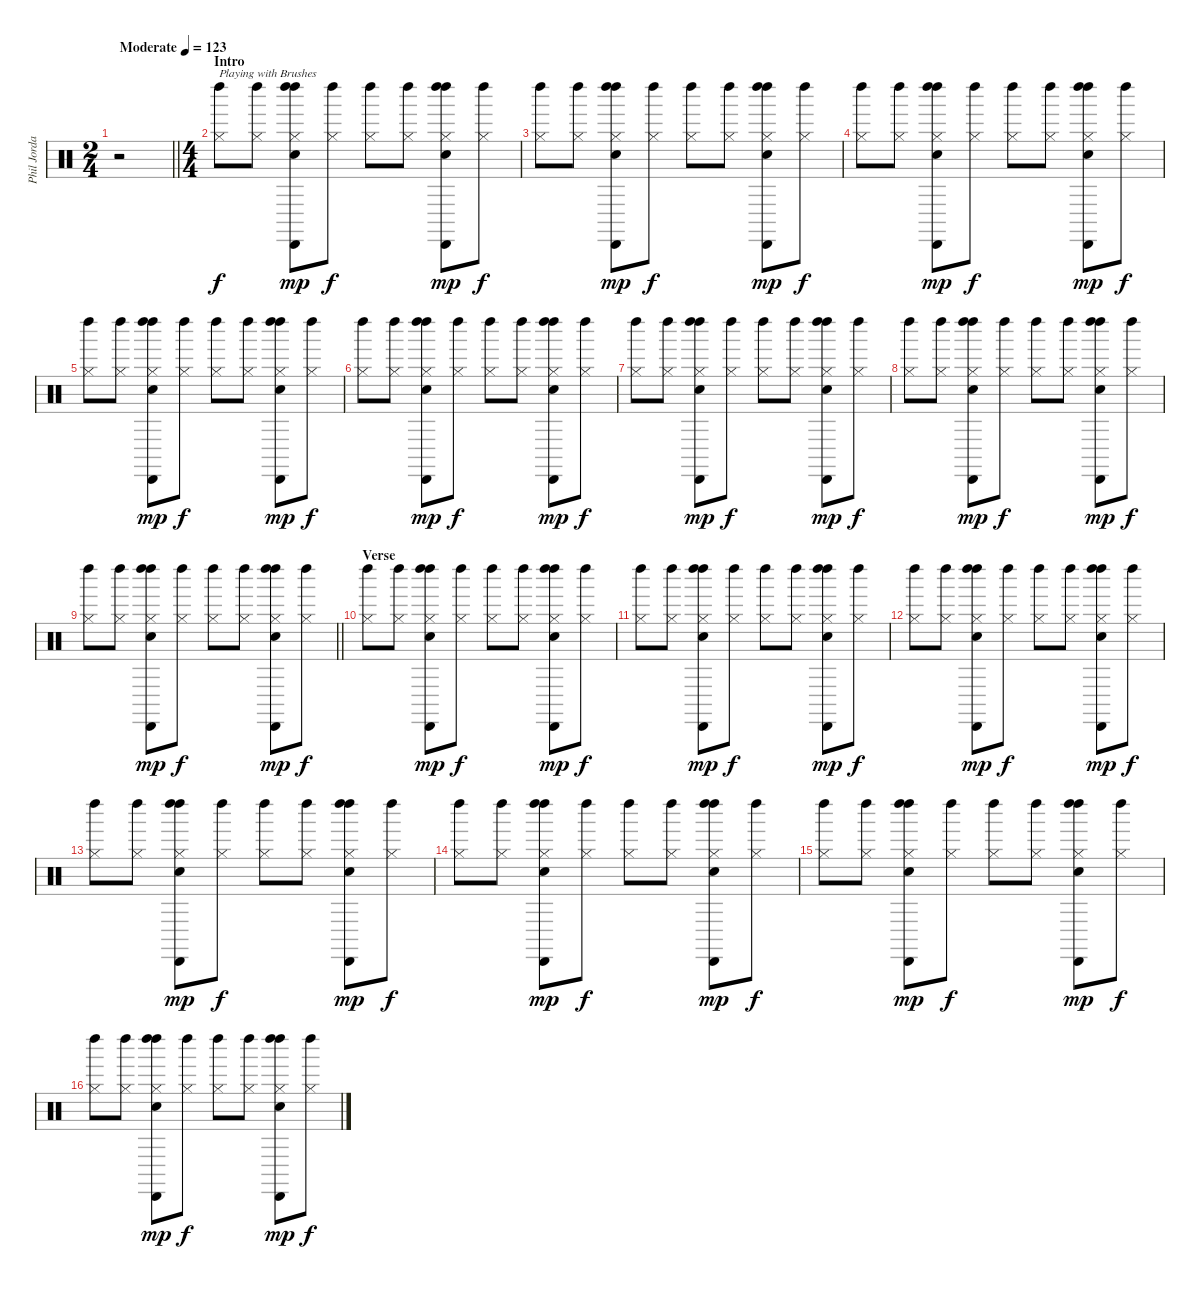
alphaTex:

\track ("Phil Jordan" "Phil Jorda") {instrument percussion}
\staff {score}
\articulation defaults
\ts (2 4)
\tempo (123 "Moderate")
\clef neutral
\barLineRight lightlight
\ks c
r.2{dy f} |
\ts (4 4)
\section ("" "Intro")
("Left Maraca (hit)" "Hi-Hat (closed)").8{txt "Playing with Brushes" volume 8} ("Left Maraca (hit)" "Hi-Hat (closed)").8 ("Left Maraca (hit)" "Hi-Hat (closed)" "Cabasa (hit)" "Left Maraca (hit)" "Snare (hit) 2").8{dy mp} ("Left Maraca (hit)" "Hi-Hat (closed)").8{dy f} ("Left Maraca (hit)" "Hi-Hat (closed)").8 ("Left Maraca (hit)" "Hi-Hat (closed)").8 ("Left Maraca (hit)" "Hi-Hat (closed)" "Cabasa (hit)" "Left Maraca (hit)" "Snare (hit) 2").8{dy mp} ("Left Maraca (hit)" "Hi-Hat (closed)").8{dy f} |
("Left Maraca (hit)" "Hi-Hat (closed)").8 ("Left Maraca (hit)" "Hi-Hat (closed)").8 ("Left Maraca (hit)" "Hi-Hat (closed)" "Cabasa (hit)" "Left Maraca (hit)" "Snare (hit) 2").8{dy mp} ("Left Maraca (hit)" "Hi-Hat (closed)").8{dy f} ("Left Maraca (hit)" "Hi-Hat (closed)").8 ("Left Maraca (hit)" "Hi-Hat (closed)").8 ("Left Maraca (hit)" "Hi-Hat (closed)" "Cabasa (hit)" "Left Maraca (hit)" "Snare (hit) 2").8{dy mp} ("Left Maraca (hit)" "Hi-Hat (closed)").8{dy f} |
("Left Maraca (hit)" "Hi-Hat (closed)").8 ("Left Maraca (hit)" "Hi-Hat (closed)").8 ("Left Maraca (hit)" "Hi-Hat (closed)" "Cabasa (hit)" "Left Maraca (hit)" "Snare (hit) 2").8{dy mp} ("Left Maraca (hit)" "Hi-Hat (closed)").8{dy f} ("Left Maraca (hit)" "Hi-Hat (closed)").8 ("Left Maraca (hit)" "Hi-Hat (closed)").8 ("Left Maraca (hit)" "Hi-Hat (closed)" "Cabasa (hit)" "Left Maraca (hit)" "Snare (hit) 2").8{dy mp} ("Left Maraca (hit)" "Hi-Hat (closed)").8{dy f} |
("Left Maraca (hit)" "Hi-Hat (closed)").8 ("Left Maraca (hit)" "Hi-Hat (closed)").8 ("Left Maraca (hit)" "Hi-Hat (closed)" "Cabasa (hit)" "Left Maraca (hit)" "Snare (hit) 2").8{dy mp} ("Left Maraca (hit)" "Hi-Hat (closed)").8{dy f} ("Left Maraca (hit)" "Hi-Hat (closed)").8 ("Left Maraca (hit)" "Hi-Hat (closed)").8 ("Left Maraca (hit)" "Hi-Hat (closed)" "Cabasa (hit)" "Left Maraca (hit)" "Snare (hit) 2").8{dy mp} ("Left Maraca (hit)" "Hi-Hat (closed)").8{dy f} |
("Left Maraca (hit)" "Hi-Hat (closed)").8{volume 8} ("Left Maraca (hit)" "Hi-Hat (closed)").8 ("Left Maraca (hit)" "Hi-Hat (closed)" "Cabasa (hit)" "Left Maraca (hit)" "Snare (hit) 2").8{dy mp} ("Left Maraca (hit)" "Hi-Hat (closed)").8{dy f} ("Left Maraca (hit)" "Hi-Hat (closed)").8 ("Left Maraca (hit)" "Hi-Hat (closed)").8 ("Left Maraca (hit)" "Hi-Hat (closed)" "Cabasa (hit)" "Left Maraca (hit)" "Snare (hit) 2").8{dy mp} ("Left Maraca (hit)" "Hi-Hat (closed)").8{dy f} |
("Left Maraca (hit)" "Hi-Hat (closed)").8 ("Left Maraca (hit)" "Hi-Hat (closed)").8 ("Left Maraca (hit)" "Hi-Hat (closed)" "Cabasa (hit)" "Left Maraca (hit)" "Snare (hit) 2").8{dy mp} ("Left Maraca (hit)" "Hi-Hat (closed)").8{dy f} ("Left Maraca (hit)" "Hi-Hat (closed)").8 ("Left Maraca (hit)" "Hi-Hat (closed)").8 ("Left Maraca (hit)" "Hi-Hat (closed)" "Cabasa (hit)" "Left Maraca (hit)" "Snare (hit) 2").8{dy mp} ("Left Maraca (hit)" "Hi-Hat (closed)").8{dy f} |
("Left Maraca (hit)" "Hi-Hat (closed)").8 ("Left Maraca (hit)" "Hi-Hat (closed)").8 ("Left Maraca (hit)" "Hi-Hat (closed)" "Cabasa (hit)" "Left Maraca (hit)" "Snare (hit) 2").8{dy mp} ("Left Maraca (hit)" "Hi-Hat (closed)").8{dy f} ("Left Maraca (hit)" "Hi-Hat (closed)").8 ("Left Maraca (hit)" "Hi-Hat (closed)").8 ("Left Maraca (hit)" "Hi-Hat (closed)" "Cabasa (hit)" "Left Maraca (hit)" "Snare (hit) 2").8{dy mp} ("Left Maraca (hit)" "Hi-Hat (closed)").8{dy f} |
\barLineRight lightlight
("Left Maraca (hit)" "Hi-Hat (closed)").8 ("Left Maraca (hit)" "Hi-Hat (closed)").8 ("Left Maraca (hit)" "Hi-Hat (closed)" "Cabasa (hit)" "Left Maraca (hit)" "Snare (hit) 2").8{dy mp} ("Left Maraca (hit)" "Hi-Hat (closed)").8{dy f} ("Left Maraca (hit)" "Hi-Hat (closed)").8 ("Left Maraca (hit)" "Hi-Hat (closed)").8 ("Left Maraca (hit)" "Hi-Hat (closed)" "Cabasa (hit)" "Left Maraca (hit)" "Snare (hit) 2").8{dy mp} ("Left Maraca (hit)" "Hi-Hat (closed)").8{dy f} |
\section ("" "Verse")
("Left Maraca (hit)" "Hi-Hat (closed)").8{volume 8} ("Left Maraca (hit)" "Hi-Hat (closed)").8 ("Left Maraca (hit)" "Hi-Hat (closed)" "Cabasa (hit)" "Left Maraca (hit)" "Snare (hit) 2").8{dy mp} ("Left Maraca (hit)" "Hi-Hat (closed)").8{dy f} ("Left Maraca (hit)" "Hi-Hat (closed)").8 ("Left Maraca (hit)" "Hi-Hat (closed)").8 ("Left Maraca (hit)" "Hi-Hat (closed)" "Cabasa (hit)" "Left Maraca (hit)" "Snare (hit) 2").8{dy mp} ("Left Maraca (hit)" "Hi-Hat (closed)").8{dy f} |
("Left Maraca (hit)" "Hi-Hat (closed)").8 ("Left Maraca (hit)" "Hi-Hat (closed)").8 ("Left Maraca (hit)" "Hi-Hat (closed)" "Cabasa (hit)" "Left Maraca (hit)" "Snare (hit) 2").8{dy mp} ("Left Maraca (hit)" "Hi-Hat (closed)").8{dy f} ("Left Maraca (hit)" "Hi-Hat (closed)").8 ("Left Maraca (hit)" "Hi-Hat (closed)").8 ("Left Maraca (hit)" "Hi-Hat (closed)" "Cabasa (hit)" "Left Maraca (hit)" "Snare (hit) 2").8{dy mp} ("Left Maraca (hit)" "Hi-Hat (closed)").8{dy f} |
("Left Maraca (hit)" "Hi-Hat (closed)").8 ("Left Maraca (hit)" "Hi-Hat (closed)").8 ("Left Maraca (hit)" "Hi-Hat (closed)" "Cabasa (hit)" "Left Maraca (hit)" "Snare (hit) 2").8{dy mp} ("Left Maraca (hit)" "Hi-Hat (closed)").8{dy f} ("Left Maraca (hit)" "Hi-Hat (closed)").8 ("Left Maraca (hit)" "Hi-Hat (closed)").8 ("Left Maraca (hit)" "Hi-Hat (closed)" "Cabasa (hit)" "Left Maraca (hit)" "Snare (hit) 2").8{dy mp} ("Left Maraca (hit)" "Hi-Hat (closed)").8{dy f} |
("Left Maraca (hit)" "Hi-Hat (closed)").8 ("Left Maraca (hit)" "Hi-Hat (closed)").8 ("Left Maraca (hit)" "Hi-Hat (closed)" "Cabasa (hit)" "Left Maraca (hit)" "Snare (hit) 2").8{dy mp} ("Left Maraca (hit)" "Hi-Hat (closed)").8{dy f} ("Left Maraca (hit)" "Hi-Hat (closed)").8 ("Left Maraca (hit)" "Hi-Hat (closed)").8 ("Left Maraca (hit)" "Hi-Hat (closed)" "Cabasa (hit)" "Left Maraca (hit)" "Snare (hit) 2").8{dy mp} ("Left Maraca (hit)" "Hi-Hat (closed)").8{dy f} |
("Left Maraca (hit)" "Hi-Hat (closed)").8 ("Left Maraca (hit)" "Hi-Hat (closed)").8 ("Left Maraca (hit)" "Hi-Hat (closed)" "Cabasa (hit)" "Left Maraca (hit)" "Snare (hit) 2").8{dy mp} ("Left Maraca (hit)" "Hi-Hat (closed)").8{dy f} ("Left Maraca (hit)" "Hi-Hat (closed)").8 ("Left Maraca (hit)" "Hi-Hat (closed)").8 ("Left Maraca (hit)" "Hi-Hat (closed)" "Cabasa (hit)" "Left Maraca (hit)" "Snare (hit) 2").8{dy mp} ("Left Maraca (hit)" "Hi-Hat (closed)").8{dy f} |
("Left Maraca (hit)" "Hi-Hat (closed)").8{volume 8} ("Left Maraca (hit)" "Hi-Hat (closed)").8 ("Left Maraca (hit)" "Hi-Hat (closed)" "Cabasa (hit)" "Left Maraca (hit)" "Snare (hit) 2").8{dy mp} ("Left Maraca (hit)" "Hi-Hat (closed)").8{dy f} ("Left Maraca (hit)" "Hi-Hat (closed)").8 ("Left Maraca (hit)" "Hi-Hat (closed)").8 ("Left Maraca (hit)" "Hi-Hat (closed)" "Cabasa (hit)" "Left Maraca (hit)" "Snare (hit) 2").8{dy mp} ("Left Maraca (hit)" "Hi-Hat (closed)").8{dy f} |
("Left Maraca (hit)" "Hi-Hat (closed)").8 ("Left Maraca (hit)" "Hi-Hat (closed)").8 ("Left Maraca (hit)" "Hi-Hat (closed)" "Cabasa (hit)" "Left Maraca (hit)" "Snare (hit) 2").8{dy mp} ("Left Maraca (hit)" "Hi-Hat (closed)").8{dy f} ("Left Maraca (hit)" "Hi-Hat (closed)").8 ("Left Maraca (hit)" "Hi-Hat (closed)").8 ("Left Maraca (hit)" "Hi-Hat (closed)" "Cabasa (hit)" "Left Maraca (hit)" "Snare (hit) 2").8{dy mp} ("Left Maraca (hit)" "Hi-Hat (closed)").8{dy f}
